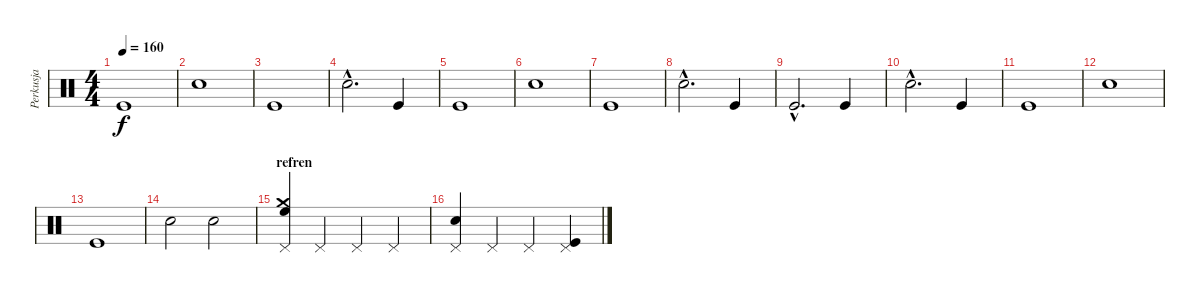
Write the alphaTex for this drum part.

\track ("Perkusja" "Perkusja") {instrument percussion}
\staff {score}
\articulation defaults
\ts (4 4)
\tempo 160
\clef neutral
\ks c "Kick (hit)".1{dy f}
|
"Snare (hit) 2".1 |
"Kick (hit)".1 |
"Snare (hit) 2"{hac}.2{d} "Kick (hit)".4 |
"Kick (hit)".1 |
"Snare (hit) 2".1 |
"Kick (hit)".1 |
"Snare (hit) 2"{hac}.2{d} "Kick (hit)".4 |
"Kick (hit)"{hac}.2{d} "Kick (hit)".4 |
"Snare (hit) 2"{hac}.2{d} "Kick (hit)".4 |
"Kick (hit)".1 |
"Snare (hit) 2".1 |
"Kick (hit)".1 |
"Snare (hit) 2".2 "Electric Snare (hit)".2 |
\section ("" "refren")
("High Floor Tom (hit)" "Crash medium (hit)" "Pedal Hi-Hat (hit)").4 "Pedal Hi-Hat (hit)".4 "Pedal Hi-Hat (hit)".4 "Pedal Hi-Hat (hit)".4 |
("Snare (hit) 2" "Pedal Hi-Hat (hit)").4 "Pedal Hi-Hat (hit)".4 "Pedal Hi-Hat (hit)".4 ("Kick (hit)" "Pedal Hi-Hat (hit)").4
